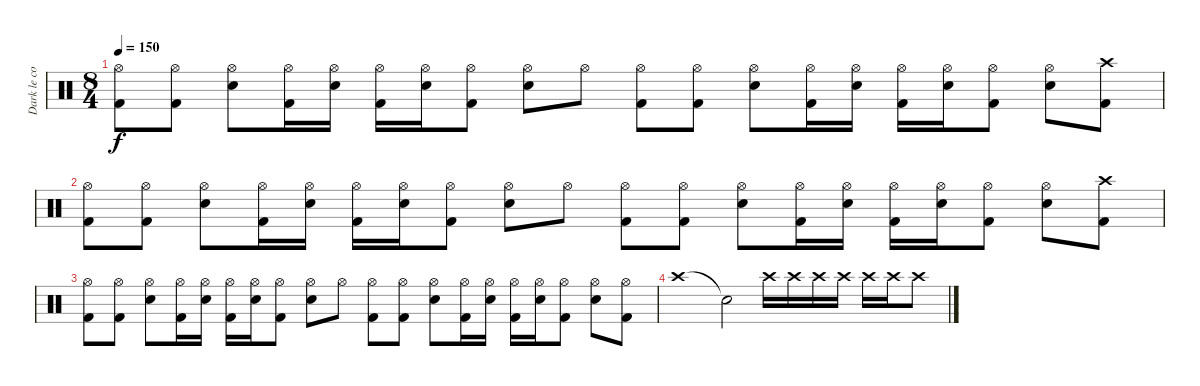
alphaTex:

\track ("Dark le coquet" "Dark le co") {instrument percussion}
\staff {score}
\articulation defaults
\ts (8 4)
\tempo 150
\clef neutral
\ks c
("Hi-Hat (open)" "Kick (hit) 2").8{dy f} ("Hi-Hat (open)" "Kick (hit) 2").8 ("Hi-Hat (open)" "Snare (hit) 2").8 ("Hi-Hat (open)" "Kick (hit) 2").16 ("Hi-Hat (open)" "Snare (hit) 2").16 ("Hi-Hat (open)" "Kick (hit) 2").16 ("Hi-Hat (open)" "Snare (hit) 2").16 ("Hi-Hat (open)" "Kick (hit) 2").8 ("Hi-Hat (open)" "Snare (hit) 2").8 "Hi-Hat (open)".8 ("Hi-Hat (open)" "Kick (hit) 2").8 ("Hi-Hat (open)" "Kick (hit) 2").8 ("Hi-Hat (open)" "Snare (hit) 2").8 ("Hi-Hat (open)" "Kick (hit) 2").16 ("Hi-Hat (open)" "Snare (hit) 2").16 ("Hi-Hat (open)" "Kick (hit) 2").16 ("Hi-Hat (open)" "Snare (hit) 2").16 ("Hi-Hat (open)" "Kick (hit) 2").8 ("Hi-Hat (open)" "Snare (hit) 2").8 ("Crash high (hit)" "Kick (hit) 2").8 |
("Hi-Hat (open)" "Kick (hit) 2").8 ("Hi-Hat (open)" "Kick (hit) 2").8 ("Hi-Hat (open)" "Snare (hit) 2").8 ("Hi-Hat (open)" "Kick (hit) 2").16 ("Hi-Hat (open)" "Snare (hit) 2").16 ("Hi-Hat (open)" "Kick (hit) 2").16 ("Hi-Hat (open)" "Snare (hit) 2").16 ("Hi-Hat (open)" "Kick (hit) 2").8 ("Hi-Hat (open)" "Snare (hit) 2").8 "Hi-Hat (open)".8 ("Hi-Hat (open)" "Kick (hit) 2").8 ("Hi-Hat (open)" "Kick (hit) 2").8 ("Hi-Hat (open)" "Snare (hit) 2").8 ("Hi-Hat (open)" "Kick (hit) 2").16 ("Hi-Hat (open)" "Snare (hit) 2").16 ("Hi-Hat (open)" "Kick (hit) 2").16 ("Hi-Hat (open)" "Snare (hit) 2").16 ("Hi-Hat (open)" "Kick (hit) 2").8 ("Hi-Hat (open)" "Snare (hit) 2").8 ("Crash high (hit)" "Kick (hit) 2").8 |
("Hi-Hat (open)" "Kick (hit) 2").8 ("Hi-Hat (open)" "Kick (hit) 2").8 ("Hi-Hat (open)" "Snare (hit) 2").8 ("Hi-Hat (open)" "Kick (hit) 2").16 ("Hi-Hat (open)" "Snare (hit) 2").16 ("Hi-Hat (open)" "Kick (hit) 2").16 ("Hi-Hat (open)" "Snare (hit) 2").16 ("Hi-Hat (open)" "Kick (hit) 2").8 ("Hi-Hat (open)" "Snare (hit) 2").8 "Hi-Hat (open)".8 ("Hi-Hat (open)" "Kick (hit) 2").8 ("Hi-Hat (open)" "Kick (hit) 2").8 ("Hi-Hat (open)" "Snare (hit) 2").8 ("Hi-Hat (open)" "Kick (hit) 2").16 ("Hi-Hat (open)" "Snare (hit) 2").16 ("Hi-Hat (open)" "Kick (hit) 2").16 ("Hi-Hat (open)" "Snare (hit) 2").16 ("Hi-Hat (open)" "Kick (hit) 2").8 ("Hi-Hat (open)" "Snare (hit) 2").8 ("Hi-Hat (open)" "Kick (hit) 2").8 |
"Crash high (hit)".1 "Snare (hit)"{t}.2 "Crash high (hit)".16 "Crash high (hit)".16 "Crash high (hit)".16 "Crash high (hit)".16 "Crash high (hit)".16 "Crash high (hit)".16 "Crash high (hit)".8
